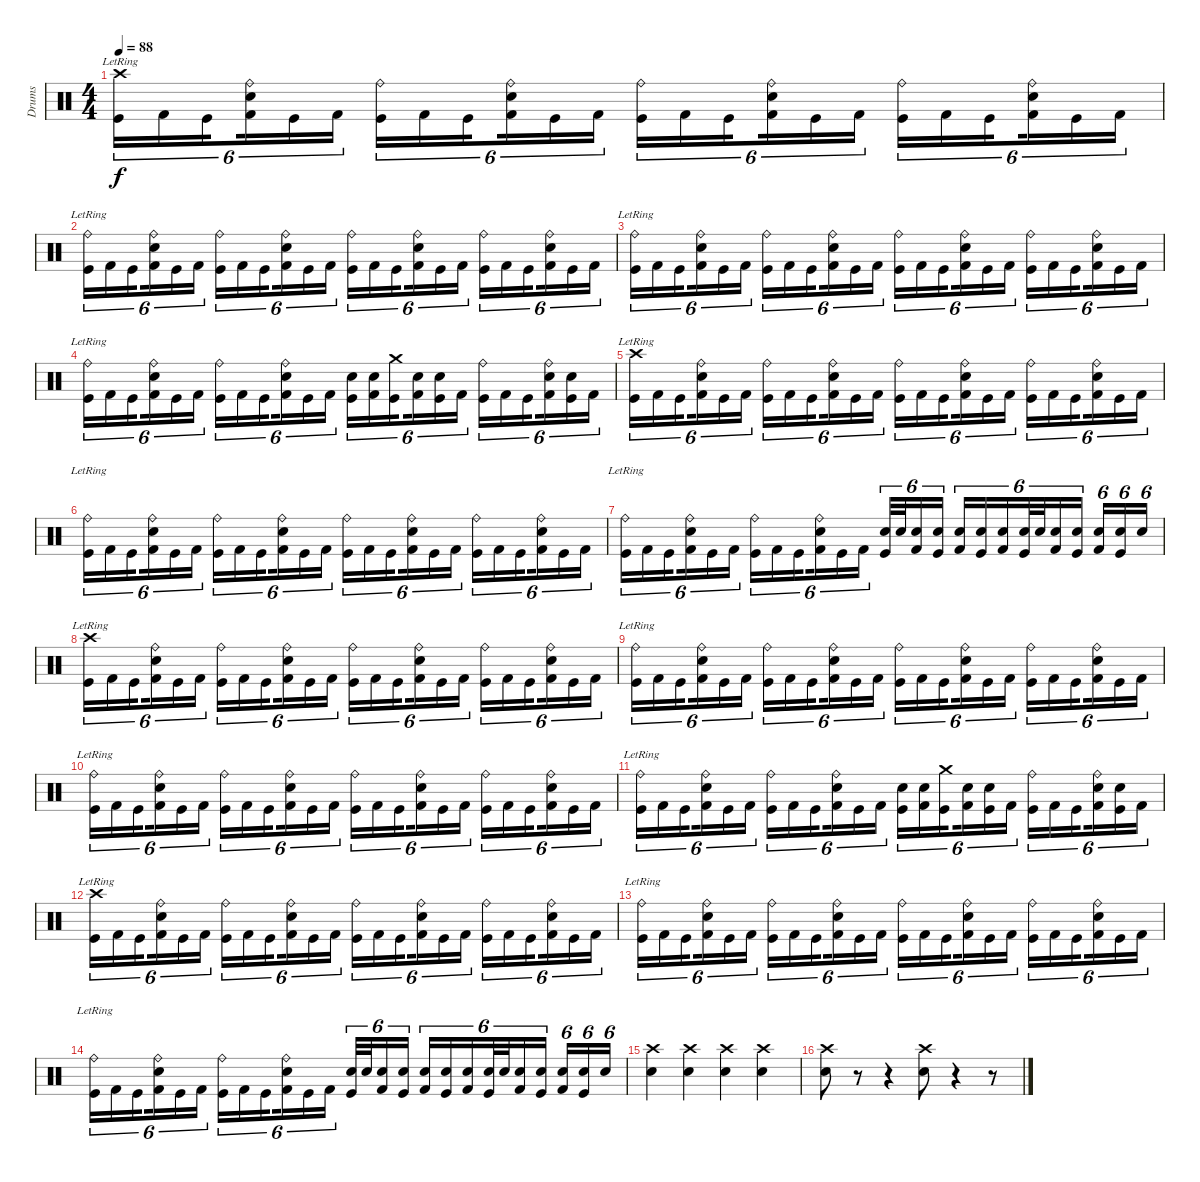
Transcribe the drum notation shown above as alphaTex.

\track ("Drums" "Drums") {instrument percussion}
\staff {score}
\articulation defaults
\ts (4 4)
\tempo 88
\clef neutral
\ks c
("Crash high (hit)"{lr} "Kick (hit)").16{tu (6 4) dy f} "Kick (hit) 2".16{tu (6 4)} "Kick (hit)".16{tu (6 4) beam splitsecondary} ("Ride (bell)" "Snare (hit) 2" "Kick (hit) 2").16{tu (6 4)} "Kick (hit)".16{tu (6 4)} "Kick (hit) 2".16{tu (6 4)} ("Ride (bell)" "Kick (hit)").16{tu (6 4)} "Kick (hit) 2".16{tu (6 4)} "Kick (hit)".16{tu (6 4) beam splitsecondary} ("Ride (bell)" "Snare (hit) 2" "Kick (hit) 2").16{tu (6 4)} "Kick (hit)".16{tu (6 4)} "Kick (hit) 2".16{tu (6 4)} ("Ride (bell)" "Kick (hit)").16{tu (6 4)} "Kick (hit) 2".16{tu (6 4)} "Kick (hit)".16{tu (6 4) beam splitsecondary} ("Ride (bell)" "Snare (hit) 2" "Kick (hit) 2").16{tu (6 4)} "Kick (hit)".16{tu (6 4)} "Kick (hit) 2".16{tu (6 4)} ("Ride (bell)" "Kick (hit)").16{tu (6 4)} "Kick (hit) 2".16{tu (6 4)} "Kick (hit)".16{tu (6 4) beam splitsecondary} ("Ride (bell)" "Snare (hit) 2" "Kick (hit) 2").16{tu (6 4)} "Kick (hit)".16{tu (6 4)} "Kick (hit) 2".16{tu (6 4)} |
("Ride (bell)"{lr} "Kick (hit)").16{tu (6 4)} "Kick (hit) 2".16{tu (6 4)} "Kick (hit)".16{tu (6 4) beam splitsecondary} ("Ride (bell)" "Snare (hit) 2" "Kick (hit) 2").16{tu (6 4)} "Kick (hit)".16{tu (6 4)} "Kick (hit) 2".16{tu (6 4)} ("Ride (bell)" "Kick (hit)").16{tu (6 4)} "Kick (hit) 2".16{tu (6 4)} "Kick (hit)".16{tu (6 4) beam splitsecondary} ("Ride (bell)" "Snare (hit) 2" "Kick (hit) 2").16{tu (6 4)} "Kick (hit)".16{tu (6 4)} "Kick (hit) 2".16{tu (6 4)} ("Ride (bell)" "Kick (hit)").16{tu (6 4)} "Kick (hit) 2".16{tu (6 4)} "Kick (hit)".16{tu (6 4) beam splitsecondary} ("Ride (bell)" "Snare (hit) 2" "Kick (hit) 2").16{tu (6 4)} "Kick (hit)".16{tu (6 4)} "Kick (hit) 2".16{tu (6 4)} ("Ride (bell)" "Kick (hit)").16{tu (6 4)} "Kick (hit) 2".16{tu (6 4)} "Kick (hit)".16{tu (6 4) beam splitsecondary} ("Ride (bell)" "Snare (hit) 2" "Kick (hit) 2").16{tu (6 4)} "Kick (hit)".16{tu (6 4)} "Kick (hit) 2".16{tu (6 4)} |
("Ride (bell)"{lr} "Kick (hit)").16{tu (6 4)} "Kick (hit) 2".16{tu (6 4)} "Kick (hit)".16{tu (6 4) beam splitsecondary} ("Ride (bell)" "Snare (hit) 2" "Kick (hit) 2").16{tu (6 4)} "Kick (hit)".16{tu (6 4)} "Kick (hit) 2".16{tu (6 4)} ("Ride (bell)" "Kick (hit)").16{tu (6 4)} "Kick (hit) 2".16{tu (6 4)} "Kick (hit)".16{tu (6 4) beam splitsecondary} ("Ride (bell)" "Snare (hit) 2" "Kick (hit) 2").16{tu (6 4)} "Kick (hit)".16{tu (6 4)} "Kick (hit) 2".16{tu (6 4)} ("Ride (bell)" "Kick (hit)").16{tu (6 4)} "Kick (hit) 2".16{tu (6 4)} "Kick (hit)".16{tu (6 4) beam splitsecondary} ("Ride (bell)" "Snare (hit) 2" "Kick (hit) 2").16{tu (6 4)} "Kick (hit)".16{tu (6 4)} "Kick (hit) 2".16{tu (6 4)} ("Ride (bell)" "Kick (hit)").16{tu (6 4)} "Kick (hit) 2".16{tu (6 4)} "Kick (hit)".16{tu (6 4) beam splitsecondary} ("Ride (bell)" "Snare (hit) 2" "Kick (hit) 2").16{tu (6 4)} "Kick (hit)".16{tu (6 4)} "Kick (hit) 2".16{tu (6 4)} |
("Ride (bell)"{lr} "Kick (hit)").16{tu (6 4)} "Kick (hit) 2".16{tu (6 4)} "Kick (hit)".16{tu (6 4) beam splitsecondary} ("Ride (bell)" "Snare (hit) 2" "Kick (hit) 2").16{tu (6 4)} "Kick (hit)".16{tu (6 4)} "Kick (hit) 2".16{tu (6 4)} ("Ride (bell)" "Kick (hit)").16{tu (6 4)} "Kick (hit) 2".16{tu (6 4)} "Kick (hit)".16{tu (6 4) beam splitsecondary} ("Ride (bell)" "Snare (hit) 2" "Kick (hit) 2").16{tu (6 4)} "Kick (hit)".16{tu (6 4)} "Kick (hit) 2".16{tu (6 4)} ("Snare (hit) 2" "Kick (hit)").16{tu (6 4)} ("Snare (hit) 2" "Kick (hit) 2").16{tu (6 4)} ("Crash medium (hit)" "Kick (hit)").16{tu (6 4) beam splitsecondary} ("Snare (hit) 2" "Kick (hit) 2").16{tu (6 4)} ("Snare (hit) 2" "Kick (hit)").16{tu (6 4)} "Kick (hit) 2".16{tu (6 4)} ("Ride (bell)" "Kick (hit)").16{tu (6 4)} "Kick (hit) 2".16{tu (6 4)} "Kick (hit)".16{tu (6 4) beam splitsecondary} ("Ride (bell)" "Snare (hit) 2" "Kick (hit) 2").16{tu (6 4)} ("Snare (hit) 2" "Kick (hit)").16{tu (6 4)} "Kick (hit) 2".16{tu (6 4)} |
("Crash high (hit)"{lr} "Kick (hit)").16{tu (6 4)} "Kick (hit) 2".16{tu (6 4)} "Kick (hit)".16{tu (6 4) beam splitsecondary} ("Ride (bell)" "Snare (hit) 2" "Kick (hit) 2").16{tu (6 4)} "Kick (hit)".16{tu (6 4)} "Kick (hit) 2".16{tu (6 4)} ("Ride (bell)" "Kick (hit)").16{tu (6 4)} "Kick (hit) 2".16{tu (6 4)} "Kick (hit)".16{tu (6 4) beam splitsecondary} ("Ride (bell)" "Snare (hit) 2" "Kick (hit) 2").16{tu (6 4)} "Kick (hit)".16{tu (6 4)} "Kick (hit) 2".16{tu (6 4)} ("Ride (bell)" "Kick (hit)").16{tu (6 4)} "Kick (hit) 2".16{tu (6 4)} "Kick (hit)".16{tu (6 4) beam splitsecondary} ("Ride (bell)" "Snare (hit) 2" "Kick (hit) 2").16{tu (6 4)} "Kick (hit)".16{tu (6 4)} "Kick (hit) 2".16{tu (6 4)} ("Ride (bell)" "Kick (hit)").16{tu (6 4)} "Kick (hit) 2".16{tu (6 4)} "Kick (hit)".16{tu (6 4) beam splitsecondary} ("Ride (bell)" "Snare (hit) 2" "Kick (hit) 2").16{tu (6 4)} "Kick (hit)".16{tu (6 4)} "Kick (hit) 2".16{tu (6 4)} |
("Ride (bell)"{lr} "Kick (hit)").16{tu (6 4)} "Kick (hit) 2".16{tu (6 4)} "Kick (hit)".16{tu (6 4) beam splitsecondary} ("Ride (bell)" "Snare (hit) 2" "Kick (hit) 2").16{tu (6 4)} "Kick (hit)".16{tu (6 4)} "Kick (hit) 2".16{tu (6 4)} ("Ride (bell)" "Kick (hit)").16{tu (6 4)} "Kick (hit) 2".16{tu (6 4)} "Kick (hit)".16{tu (6 4) beam splitsecondary} ("Ride (bell)" "Snare (hit) 2" "Kick (hit) 2").16{tu (6 4)} "Kick (hit)".16{tu (6 4)} "Kick (hit) 2".16{tu (6 4)} ("Ride (bell)" "Kick (hit)").16{tu (6 4)} "Kick (hit) 2".16{tu (6 4)} "Kick (hit)".16{tu (6 4) beam splitsecondary} ("Ride (bell)" "Snare (hit) 2" "Kick (hit) 2").16{tu (6 4)} "Kick (hit)".16{tu (6 4)} "Kick (hit) 2".16{tu (6 4)} ("Ride (bell)" "Kick (hit)").16{tu (6 4)} "Kick (hit) 2".16{tu (6 4)} "Kick (hit)".16{tu (6 4) beam splitsecondary} ("Ride (bell)" "Snare (hit) 2" "Kick (hit) 2").16{tu (6 4)} "Kick (hit)".16{tu (6 4)} "Kick (hit) 2".16{tu (6 4)} |
("Ride (bell)"{lr} "Kick (hit)").16{tu (6 4)} "Kick (hit) 2".16{tu (6 4)} "Kick (hit)".16{tu (6 4) beam splitsecondary} ("Ride (bell)" "Snare (hit) 2" "Kick (hit) 2").16{tu (6 4)} "Kick (hit)".16{tu (6 4)} "Kick (hit) 2".16{tu (6 4)} ("Ride (bell)" "Kick (hit)").16{tu (6 4)} "Kick (hit) 2".16{tu (6 4)} "Kick (hit)".16{tu (6 4) beam splitsecondary} ("Ride (bell)" "Snare (hit) 2" "Kick (hit) 2").16{tu (6 4)} "Kick (hit)".16{tu (6 4)} "Kick (hit) 2".16{tu (6 4)} ("Snare (hit) 2" "Kick (hit)").32{tu (6 4)} "Snare (hit) 2".32{tu (6 4)} ("Snare (hit) 2" "Kick (hit) 2").16{tu (6 4)} ("Snare (hit) 2" "Kick (hit)").16{tu (6 4) beam splitsecondary} ("Snare (hit) 2" "Kick (hit) 2").16{tu (6 4)} ("Snare (hit) 2" "Kick (hit)").16{tu (6 4)} ("Snare (hit) 2" "Kick (hit) 2").16{tu (6 4)} ("Snare (hit) 2" "Kick (hit)").32{tu (6 4)} "Snare (hit) 2".32{tu (6 4)} ("Snare (hit) 2" "Kick (hit) 2").16{tu (6 4)} ("Snare (hit) 2" "Kick (hit)").16{tu (6 4) beam splitsecondary} ("Snare (hit) 2" "Kick (hit) 2").16{tu (6 4)} ("Snare (hit) 2" "Kick (hit)").16{tu (6 4)} "Snare (hit) 2".16{tu (6 4)} |
("Crash high (hit)"{lr} "Kick (hit)").16{tu (6 4)} "Kick (hit) 2".16{tu (6 4)} "Kick (hit)".16{tu (6 4) beam splitsecondary} ("Ride (bell)" "Snare (hit) 2" "Kick (hit) 2").16{tu (6 4)} "Kick (hit)".16{tu (6 4)} "Kick (hit) 2".16{tu (6 4)} ("Ride (bell)" "Kick (hit)").16{tu (6 4)} "Kick (hit) 2".16{tu (6 4)} "Kick (hit)".16{tu (6 4) beam splitsecondary} ("Ride (bell)" "Snare (hit) 2" "Kick (hit) 2").16{tu (6 4)} "Kick (hit)".16{tu (6 4)} "Kick (hit) 2".16{tu (6 4)} ("Ride (bell)" "Kick (hit)").16{tu (6 4)} "Kick (hit) 2".16{tu (6 4)} "Kick (hit)".16{tu (6 4) beam splitsecondary} ("Ride (bell)" "Snare (hit) 2" "Kick (hit) 2").16{tu (6 4)} "Kick (hit)".16{tu (6 4)} "Kick (hit) 2".16{tu (6 4)} ("Ride (bell)" "Kick (hit)").16{tu (6 4)} "Kick (hit) 2".16{tu (6 4)} "Kick (hit)".16{tu (6 4) beam splitsecondary} ("Ride (bell)" "Snare (hit) 2" "Kick (hit) 2").16{tu (6 4)} "Kick (hit)".16{tu (6 4)} "Kick (hit) 2".16{tu (6 4)} |
("Ride (bell)"{lr} "Kick (hit)").16{tu (6 4)} "Kick (hit) 2".16{tu (6 4)} "Kick (hit)".16{tu (6 4) beam splitsecondary} ("Ride (bell)" "Snare (hit) 2" "Kick (hit) 2").16{tu (6 4)} "Kick (hit)".16{tu (6 4)} "Kick (hit) 2".16{tu (6 4)} ("Ride (bell)" "Kick (hit)").16{tu (6 4)} "Kick (hit) 2".16{tu (6 4)} "Kick (hit)".16{tu (6 4) beam splitsecondary} ("Ride (bell)" "Snare (hit) 2" "Kick (hit) 2").16{tu (6 4)} "Kick (hit)".16{tu (6 4)} "Kick (hit) 2".16{tu (6 4)} ("Ride (bell)" "Kick (hit)").16{tu (6 4)} "Kick (hit) 2".16{tu (6 4)} "Kick (hit)".16{tu (6 4) beam splitsecondary} ("Ride (bell)" "Snare (hit) 2" "Kick (hit) 2").16{tu (6 4)} "Kick (hit)".16{tu (6 4)} "Kick (hit) 2".16{tu (6 4)} ("Ride (bell)" "Kick (hit)").16{tu (6 4)} "Kick (hit) 2".16{tu (6 4)} "Kick (hit)".16{tu (6 4) beam splitsecondary} ("Ride (bell)" "Snare (hit) 2" "Kick (hit) 2").16{tu (6 4)} "Kick (hit)".16{tu (6 4)} "Kick (hit) 2".16{tu (6 4)} |
("Ride (bell)"{lr} "Kick (hit)").16{tu (6 4)} "Kick (hit) 2".16{tu (6 4)} "Kick (hit)".16{tu (6 4) beam splitsecondary} ("Ride (bell)" "Snare (hit) 2" "Kick (hit) 2").16{tu (6 4)} "Kick (hit)".16{tu (6 4)} "Kick (hit) 2".16{tu (6 4)} ("Ride (bell)" "Kick (hit)").16{tu (6 4)} "Kick (hit) 2".16{tu (6 4)} "Kick (hit)".16{tu (6 4) beam splitsecondary} ("Ride (bell)" "Snare (hit) 2" "Kick (hit) 2").16{tu (6 4)} "Kick (hit)".16{tu (6 4)} "Kick (hit) 2".16{tu (6 4)} ("Ride (bell)" "Kick (hit)").16{tu (6 4)} "Kick (hit) 2".16{tu (6 4)} "Kick (hit)".16{tu (6 4) beam splitsecondary} ("Ride (bell)" "Snare (hit) 2" "Kick (hit) 2").16{tu (6 4)} "Kick (hit)".16{tu (6 4)} "Kick (hit) 2".16{tu (6 4)} ("Ride (bell)" "Kick (hit)").16{tu (6 4)} "Kick (hit) 2".16{tu (6 4)} "Kick (hit)".16{tu (6 4) beam splitsecondary} ("Ride (bell)" "Snare (hit) 2" "Kick (hit) 2").16{tu (6 4)} "Kick (hit)".16{tu (6 4)} "Kick (hit) 2".16{tu (6 4)} |
("Ride (bell)"{lr} "Kick (hit)").16{tu (6 4)} "Kick (hit) 2".16{tu (6 4)} "Kick (hit)".16{tu (6 4) beam splitsecondary} ("Ride (bell)" "Snare (hit) 2" "Kick (hit) 2").16{tu (6 4)} "Kick (hit)".16{tu (6 4)} "Kick (hit) 2".16{tu (6 4)} ("Ride (bell)" "Kick (hit)").16{tu (6 4)} "Kick (hit) 2".16{tu (6 4)} "Kick (hit)".16{tu (6 4) beam splitsecondary} ("Ride (bell)" "Snare (hit) 2" "Kick (hit) 2").16{tu (6 4)} "Kick (hit)".16{tu (6 4)} "Kick (hit) 2".16{tu (6 4)} ("Snare (hit) 2" "Kick (hit)").16{tu (6 4)} ("Snare (hit) 2" "Kick (hit) 2").16{tu (6 4)} ("Crash medium (hit)" "Kick (hit)").16{tu (6 4) beam splitsecondary} ("Snare (hit) 2" "Kick (hit) 2").16{tu (6 4)} ("Snare (hit) 2" "Kick (hit)").16{tu (6 4)} "Kick (hit) 2".16{tu (6 4)} ("Ride (bell)" "Kick (hit)").16{tu (6 4)} "Kick (hit) 2".16{tu (6 4)} "Kick (hit)".16{tu (6 4) beam splitsecondary} ("Ride (bell)" "Snare (hit) 2" "Kick (hit) 2").16{tu (6 4)} ("Snare (hit) 2" "Kick (hit)").16{tu (6 4)} "Kick (hit) 2".16{tu (6 4)} |
("Crash high (hit)"{lr} "Kick (hit)").16{tu (6 4)} "Kick (hit) 2".16{tu (6 4)} "Kick (hit)".16{tu (6 4) beam splitsecondary} ("Ride (bell)" "Snare (hit) 2" "Kick (hit) 2").16{tu (6 4)} "Kick (hit)".16{tu (6 4)} "Kick (hit) 2".16{tu (6 4)} ("Ride (bell)" "Kick (hit)").16{tu (6 4)} "Kick (hit) 2".16{tu (6 4)} "Kick (hit)".16{tu (6 4) beam splitsecondary} ("Ride (bell)" "Snare (hit) 2" "Kick (hit) 2").16{tu (6 4)} "Kick (hit)".16{tu (6 4)} "Kick (hit) 2".16{tu (6 4)} ("Ride (bell)" "Kick (hit)").16{tu (6 4)} "Kick (hit) 2".16{tu (6 4)} "Kick (hit)".16{tu (6 4) beam splitsecondary} ("Ride (bell)" "Snare (hit) 2" "Kick (hit) 2").16{tu (6 4)} "Kick (hit)".16{tu (6 4)} "Kick (hit) 2".16{tu (6 4)} ("Ride (bell)" "Kick (hit)").16{tu (6 4)} "Kick (hit) 2".16{tu (6 4)} "Kick (hit)".16{tu (6 4) beam splitsecondary} ("Ride (bell)" "Snare (hit) 2" "Kick (hit) 2").16{tu (6 4)} "Kick (hit)".16{tu (6 4)} "Kick (hit) 2".16{tu (6 4)} |
("Ride (bell)"{lr} "Kick (hit)").16{tu (6 4)} "Kick (hit) 2".16{tu (6 4)} "Kick (hit)".16{tu (6 4) beam splitsecondary} ("Ride (bell)" "Snare (hit) 2" "Kick (hit) 2").16{tu (6 4)} "Kick (hit)".16{tu (6 4)} "Kick (hit) 2".16{tu (6 4)} ("Ride (bell)" "Kick (hit)").16{tu (6 4)} "Kick (hit) 2".16{tu (6 4)} "Kick (hit)".16{tu (6 4) beam splitsecondary} ("Ride (bell)" "Snare (hit) 2" "Kick (hit) 2").16{tu (6 4)} "Kick (hit)".16{tu (6 4)} "Kick (hit) 2".16{tu (6 4)} ("Ride (bell)" "Kick (hit)").16{tu (6 4)} "Kick (hit) 2".16{tu (6 4)} "Kick (hit)".16{tu (6 4) beam splitsecondary} ("Ride (bell)" "Snare (hit) 2" "Kick (hit) 2").16{tu (6 4)} "Kick (hit)".16{tu (6 4)} "Kick (hit) 2".16{tu (6 4)} ("Ride (bell)" "Kick (hit)").16{tu (6 4)} "Kick (hit) 2".16{tu (6 4)} "Kick (hit)".16{tu (6 4) beam splitsecondary} ("Ride (bell)" "Snare (hit) 2" "Kick (hit) 2").16{tu (6 4)} "Kick (hit)".16{tu (6 4)} "Kick (hit) 2".16{tu (6 4)} |
("Ride (bell)"{lr} "Kick (hit)").16{tu (6 4)} "Kick (hit) 2".16{tu (6 4)} "Kick (hit)".16{tu (6 4) beam splitsecondary} ("Ride (bell)" "Snare (hit) 2" "Kick (hit) 2").16{tu (6 4)} "Kick (hit)".16{tu (6 4)} "Kick (hit) 2".16{tu (6 4)} ("Ride (bell)" "Kick (hit)").16{tu (6 4)} "Kick (hit) 2".16{tu (6 4)} "Kick (hit)".16{tu (6 4) beam splitsecondary} ("Ride (bell)" "Snare (hit) 2" "Kick (hit) 2").16{tu (6 4)} "Kick (hit)".16{tu (6 4)} "Kick (hit) 2".16{tu (6 4)} ("Snare (hit) 2" "Kick (hit)").32{tu (6 4)} "Snare (hit) 2".32{tu (6 4)} ("Snare (hit) 2" "Kick (hit) 2").16{tu (6 4)} ("Snare (hit) 2" "Kick (hit)").16{tu (6 4) beam splitsecondary} ("Snare (hit) 2" "Kick (hit) 2").16{tu (6 4)} ("Snare (hit) 2" "Kick (hit)").16{tu (6 4)} ("Snare (hit) 2" "Kick (hit) 2").16{tu (6 4)} ("Snare (hit) 2" "Kick (hit)").32{tu (6 4)} "Snare (hit) 2".32{tu (6 4)} ("Snare (hit) 2" "Kick (hit) 2").16{tu (6 4)} ("Snare (hit) 2" "Kick (hit)").16{tu (6 4) beam splitsecondary} ("Snare (hit) 2" "Kick (hit) 2").16{tu (6 4)} ("Snare (hit) 2" "Kick (hit)").16{tu (6 4)} "Snare (hit) 2".16{tu (6 4)} |
("Crash high (hit)" "Snare (hit) 2").4 ("Crash high (hit)" "Snare (hit) 2").4 ("Crash high (hit)" "Snare (hit) 2").4 ("Crash high (hit)" "Snare (hit) 2").4 |
("Crash high (hit)" "Snare (hit) 2").8 r.8 r.4 ("Crash high (hit)" "Snare (hit) 2").8 r.4 r.8
